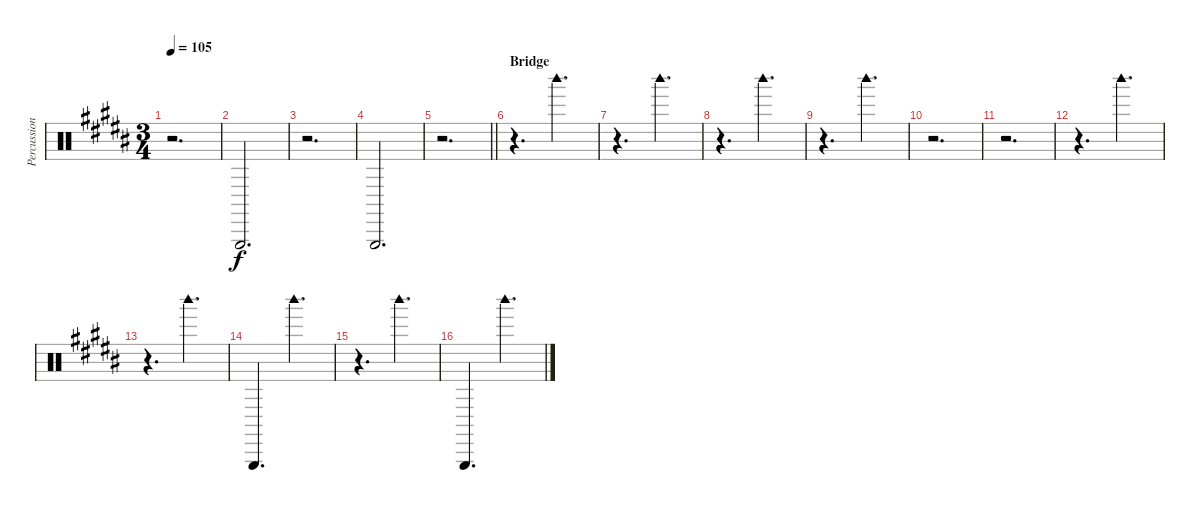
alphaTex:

\track ("Percussion" "Percussion") {instrument percussion}
\staff {score}
\articulation defaults
\ts (3 4)
\tempo 105
\clef neutral
\ks b
r.2{d dy f} |
"Triangle (hit)".2{d} |
r.2{d} |
"Triangle (hit)".2{d} |
\barLineRight lightlight
r.2{d} |
\section ("" "Bridge")
r.4{d} "Woodblock high (hit)".4{d} |
r.4{d} "Woodblock high (hit)".4{d} |
r.4{d} "Woodblock high (hit)".4{d} |
r.4{d} "Woodblock high (hit)".4{d} |
r.2{d} |
r.2{d} |
r.4{d} "Woodblock high (hit)".4{d} |
r.4{d} "Woodblock high (hit)".4{d} |
"Triangle (hit)".4{d} "Woodblock high (hit)".4{d} |
r.4{d} "Woodblock high (hit)".4{d} |
"Triangle (hit)".4{d} "Woodblock high (hit)".4{d}
